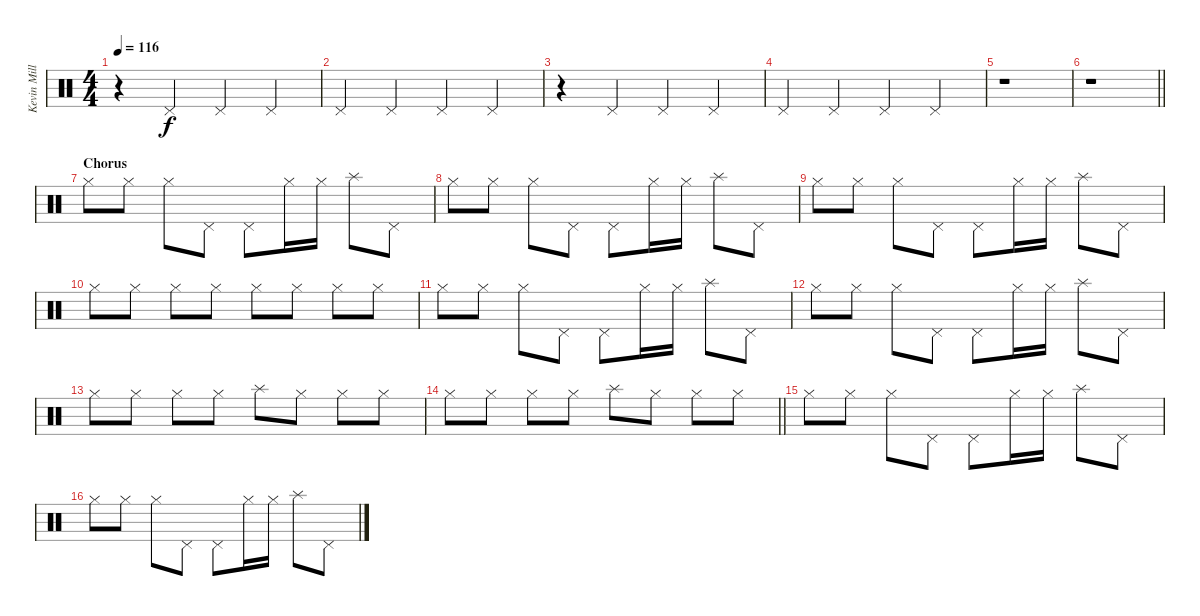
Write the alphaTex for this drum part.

\track ("Kevin Miller (Drums)" "Kevin Mill") {instrument percussion}
\staff {score}
\articulation defaults
\ts (4 4)
\tempo 116
\clef neutral
\ks c
r.4{dy f} "Pedal Hi-Hat (hit)".4 "Pedal Hi-Hat (hit)".4 "Pedal Hi-Hat (hit)".4 |
"Pedal Hi-Hat (hit)".4 "Pedal Hi-Hat (hit)".4 "Pedal Hi-Hat (hit)".4 "Pedal Hi-Hat (hit)".4 |
r.4 "Pedal Hi-Hat (hit)".4 "Pedal Hi-Hat (hit)".4 "Pedal Hi-Hat (hit)".4 |
"Pedal Hi-Hat (hit)".4 "Pedal Hi-Hat (hit)".4 "Pedal Hi-Hat (hit)".4 "Pedal Hi-Hat (hit)".4 |
r.1 |
\barLineRight lightlight
r.1 |
\section ("" "Chorus")
"Hi-Hat (closed)".8 "Hi-Hat (closed)".8 "Hi-Hat (closed)".8 "Pedal Hi-Hat (hit)".8 "Pedal Hi-Hat (hit)".8 "Hi-Hat (closed)".16 "Hi-Hat (closed)".16 "Splash (hit)".8 "Pedal Hi-Hat (hit)".8 |
"Hi-Hat (closed)".8 "Hi-Hat (closed)".8 "Hi-Hat (closed)".8 "Pedal Hi-Hat (hit)".8 "Pedal Hi-Hat (hit)".8 "Hi-Hat (closed)".16 "Hi-Hat (closed)".16 "Splash (hit)".8 "Pedal Hi-Hat (hit)".8 |
"Hi-Hat (closed)".8 "Hi-Hat (closed)".8 "Hi-Hat (closed)".8 "Pedal Hi-Hat (hit)".8 "Pedal Hi-Hat (hit)".8 "Hi-Hat (closed)".16 "Hi-Hat (closed)".16 "Splash (hit)".8 "Pedal Hi-Hat (hit)".8 |
"Hi-Hat (closed)".8 "Hi-Hat (closed)".8 "Hi-Hat (closed)".8 "Hi-Hat (closed)".8 "Hi-Hat (closed)".8 "Hi-Hat (closed)".8 "Hi-Hat (closed)".8 "Hi-Hat (closed)".8 |
"Hi-Hat (closed)".8 "Hi-Hat (closed)".8 "Hi-Hat (closed)".8 "Pedal Hi-Hat (hit)".8 "Pedal Hi-Hat (hit)".8 "Hi-Hat (closed)".16 "Hi-Hat (closed)".16 "Splash (hit)".8 "Pedal Hi-Hat (hit)".8 |
"Hi-Hat (closed)".8 "Hi-Hat (closed)".8 "Hi-Hat (closed)".8 "Pedal Hi-Hat (hit)".8 "Pedal Hi-Hat (hit)".8 "Hi-Hat (closed)".16 "Hi-Hat (closed)".16 "Splash (hit)".8 "Pedal Hi-Hat (hit)".8 |
"Hi-Hat (closed)".8 "Hi-Hat (closed)".8 "Hi-Hat (closed)".8 "Hi-Hat (closed)".8 "Splash (hit)".8 "Hi-Hat (closed)".8 "Hi-Hat (closed)".8 "Hi-Hat (closed)".8 |
\barLineRight lightlight "Hi-Hat (closed)".8 "Hi-Hat (closed)".8 "Hi-Hat (closed)".8 "Hi-Hat (closed)".8 "Splash (hit)".8 "Hi-Hat (closed)".8 "Hi-Hat (closed)".8 "Hi-Hat (closed)".8
|
"Hi-Hat (closed)".8 "Hi-Hat (closed)".8 "Hi-Hat (closed)".8 "Pedal Hi-Hat (hit)".8 "Pedal Hi-Hat (hit)".8 "Hi-Hat (closed)".16 "Hi-Hat (closed)".16 "Splash (hit)".8 "Pedal Hi-Hat (hit)".8 |
"Hi-Hat (closed)".8 "Hi-Hat (closed)".8 "Hi-Hat (closed)".8 "Pedal Hi-Hat (hit)".8 "Pedal Hi-Hat (hit)".8 "Hi-Hat (closed)".16 "Hi-Hat (closed)".16 "Splash (hit)".8 "Pedal Hi-Hat (hit)".8
